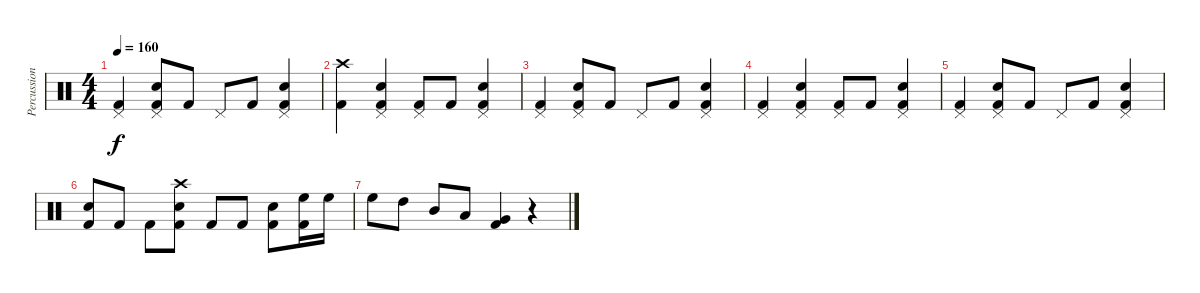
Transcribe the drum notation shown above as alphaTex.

\track ("Percussion" "Percussion") {instrument percussion}
\staff {score}
\articulation defaults
\ts (4 4)
\tempo 160
\clef neutral
\ks c
("Pedal Hi-Hat (hit)" "Kick (hit) 2").4{dy f} ("Pedal Hi-Hat (hit)" "Snare (hit) 2" "Kick (hit) 2").8 "Kick (hit) 2".8 "Pedal Hi-Hat (hit)".8 "Kick (hit) 2".8 ("Pedal Hi-Hat (hit)" "Snare (hit) 2" "Kick (hit) 2").4 |
("Crash high (hit)" "Kick (hit) 2").4 ("Pedal Hi-Hat (hit)" "Snare (hit) 2" "Kick (hit) 2").4 ("Pedal Hi-Hat (hit)" "Kick (hit) 2").8 "Kick (hit) 2".8 ("Pedal Hi-Hat (hit)" "Snare (hit) 2" "Kick (hit) 2").4 |
("Pedal Hi-Hat (hit)" "Kick (hit) 2").4 ("Pedal Hi-Hat (hit)" "Snare (hit) 2" "Kick (hit) 2").8 "Kick (hit) 2".8 "Pedal Hi-Hat (hit)".8 "Kick (hit) 2".8 ("Pedal Hi-Hat (hit)" "Snare (hit) 2" "Kick (hit) 2").4 |
("Pedal Hi-Hat (hit)" "Kick (hit) 2").4 ("Pedal Hi-Hat (hit)" "Snare (hit) 2" "Kick (hit) 2").4 ("Pedal Hi-Hat (hit)" "Kick (hit) 2").8 "Kick (hit) 2".8 ("Pedal Hi-Hat (hit)" "Snare (hit) 2" "Kick (hit) 2").4 |
("Pedal Hi-Hat (hit)" "Kick (hit) 2").4 ("Pedal Hi-Hat (hit)" "Snare (hit) 2" "Kick (hit) 2").8 "Kick (hit) 2".8 "Pedal Hi-Hat (hit)".8 "Kick (hit) 2".8 ("Pedal Hi-Hat (hit)" "Snare (hit) 2" "Kick (hit) 2").4 |
("Snare (hit) 2" "Kick (hit) 2").8 "Kick (hit) 2".8 "Kick (hit) 2".8 ("Crash high (hit)" "Snare (hit) 2" "Kick (hit) 2").8 "Kick (hit) 2".8 "Kick (hit) 2".8 ("Snare (hit) 2" "Kick (hit) 2").8 ("High Floor Tom (hit)" "Kick (hit) 2").16 "High Floor Tom (hit)".16 |
"High Floor Tom (hit)".8 "High Tom (hit)".8 "Mid Tom (hit)".8 "Low Tom (hit)".8 ("Very Low Tom (hit)" "Kick (hit) 2").4 r.4
